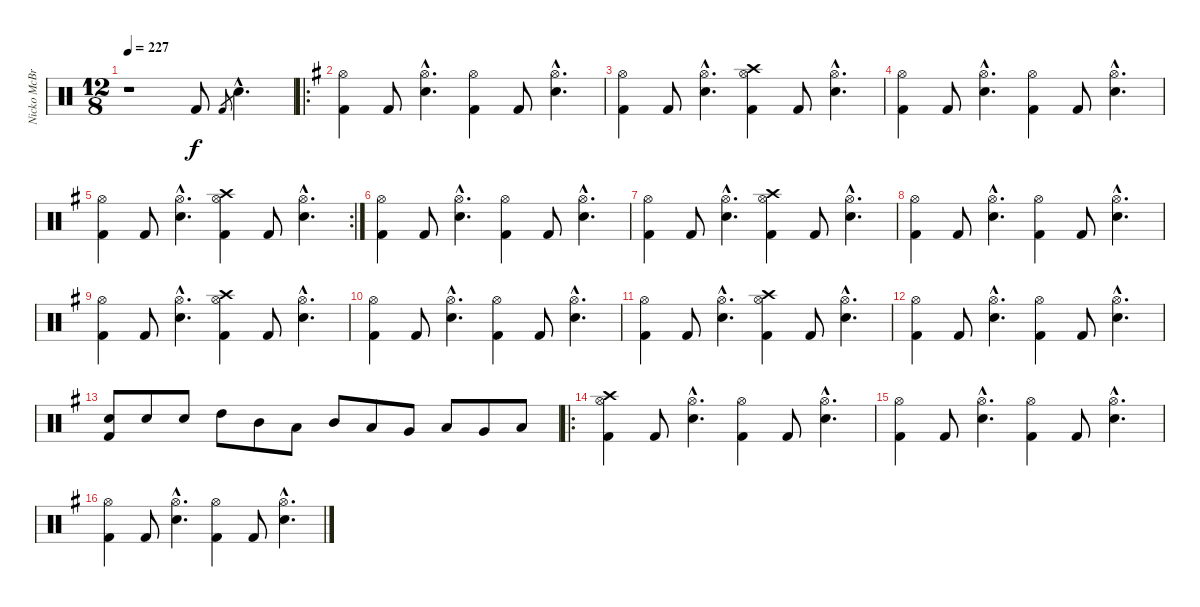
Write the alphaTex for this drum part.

\track ("Nicko McBrain" "Nicko McBr") {instrument percussion}
\staff {score}
\articulation defaults
\ts (12 8)
\tempo 227
\clef neutral
\ks c
r.1{dy f} "Kick (hit) 2".8 "Kick (hit) 2"{sl}.8{gr} "Snare (hit) 2"{hac}.4{d} |
\ro
\ks g
("Kick (hit) 2" "Hi-Hat (open)").4 "Kick (hit) 2".8 ("Snare (hit) 2"{hac} "Hi-Hat (open)"{hac}).4{d} ("Kick (hit) 2" "Hi-Hat (open)").4 "Kick (hit) 2".8 ("Snare (hit) 2"{hac} "Hi-Hat (open)"{hac}).4{d} |
("Kick (hit) 2" "Hi-Hat (open)").4 "Kick (hit) 2".8 ("Snare (hit) 2"{hac} "Hi-Hat (open)"{hac}).4{d} ("Kick (hit) 2" "Hi-Hat (open)" "Crash high (hit)").4 "Kick (hit) 2".8 ("Snare (hit) 2"{hac} "Hi-Hat (open)"{hac}).4{d} |
("Kick (hit) 2" "Hi-Hat (open)").4 "Kick (hit) 2".8 ("Snare (hit) 2"{hac} "Hi-Hat (open)"{hac}).4{d} ("Kick (hit) 2" "Hi-Hat (open)").4 "Kick (hit) 2".8 ("Snare (hit) 2"{hac} "Hi-Hat (open)"{hac}).4{d} |
\rc 2
("Kick (hit) 2" "Hi-Hat (open)").4 "Kick (hit) 2".8 ("Snare (hit) 2"{hac} "Hi-Hat (open)"{hac}).4{d} ("Kick (hit) 2" "Hi-Hat (open)" "Crash high (hit)").4 "Kick (hit) 2".8 ("Snare (hit) 2"{hac} "Hi-Hat (open)"{hac}).4{d} |
("Kick (hit) 2" "Hi-Hat (open)").4 "Kick (hit) 2".8 ("Snare (hit) 2"{hac} "Hi-Hat (open)"{hac}).4{d} ("Kick (hit) 2" "Hi-Hat (open)").4 "Kick (hit) 2".8 ("Snare (hit) 2"{hac} "Hi-Hat (open)"{hac}).4{d} |
("Kick (hit) 2" "Hi-Hat (open)").4 "Kick (hit) 2".8 ("Snare (hit) 2"{hac} "Hi-Hat (open)"{hac}).4{d} ("Kick (hit) 2" "Hi-Hat (open)" "Crash high (hit)").4 "Kick (hit) 2".8 ("Snare (hit) 2"{hac} "Hi-Hat (open)"{hac}).4{d} |
("Kick (hit) 2" "Hi-Hat (open)").4 "Kick (hit) 2".8 ("Snare (hit) 2"{hac} "Hi-Hat (open)"{hac}).4{d} ("Kick (hit) 2" "Hi-Hat (open)").4 "Kick (hit) 2".8 ("Snare (hit) 2"{hac} "Hi-Hat (open)"{hac}).4{d} |
("Kick (hit) 2" "Hi-Hat (open)").4 "Kick (hit) 2".8 ("Snare (hit) 2"{hac} "Hi-Hat (open)"{hac}).4{d} ("Kick (hit) 2" "Hi-Hat (open)" "Crash high (hit)").4 "Kick (hit) 2".8 ("Snare (hit) 2"{hac} "Hi-Hat (open)"{hac}).4{d} |
("Kick (hit) 2" "Hi-Hat (open)").4 "Kick (hit) 2".8 ("Snare (hit) 2"{hac} "Hi-Hat (open)"{hac}).4{d} ("Kick (hit) 2" "Hi-Hat (open)").4 "Kick (hit) 2".8 ("Snare (hit) 2"{hac} "Hi-Hat (open)"{hac}).4{d} |
("Kick (hit) 2" "Hi-Hat (open)").4 "Kick (hit) 2".8 ("Snare (hit) 2"{hac} "Hi-Hat (open)"{hac}).4{d} ("Kick (hit) 2" "Hi-Hat (open)" "Crash high (hit)").4 "Kick (hit) 2".8 ("Snare (hit) 2"{hac} "Hi-Hat (open)"{hac}).4{d} |
("Kick (hit) 2" "Hi-Hat (open)").4 "Kick (hit) 2".8 ("Snare (hit) 2"{hac} "Hi-Hat (open)"{hac}).4{d} ("Kick (hit) 2" "Hi-Hat (open)").4 "Kick (hit) 2".8 ("Snare (hit) 2"{hac} "Hi-Hat (open)"{hac}).4{d} |
("Kick (hit) 2" "Snare (hit) 2").8 "Snare (hit) 2".8 "Snare (hit) 2".8 "High Tom (hit)".8 "Mid Tom (hit)".8 "Low Tom (hit)".8 "Mid Tom (hit)".8 "Low Tom (hit)".8 "Very Low Tom (hit)".8 "Low Tom (hit)".8 "Very Low Tom (hit)".8 "Low Floor Tom (hit)".8 |
\ro
("Kick (hit) 2" "Hi-Hat (open)" "Crash high (hit)").4 "Kick (hit) 2".8 ("Snare (hit) 2"{hac} "Hi-Hat (open)"{hac}).4{d} ("Kick (hit) 2" "Hi-Hat (open)").4 "Kick (hit) 2".8 ("Snare (hit) 2"{hac} "Hi-Hat (open)"{hac}).4{d} |
("Kick (hit) 2" "Hi-Hat (open)").4 "Kick (hit) 2".8 ("Snare (hit) 2"{hac} "Hi-Hat (open)"{hac}).4{d} ("Kick (hit) 2" "Hi-Hat (open)").4 "Kick (hit) 2".8 ("Snare (hit) 2"{hac} "Hi-Hat (open)"{hac}).4{d} |
("Kick (hit) 2" "Hi-Hat (open)").4 "Kick (hit) 2".8 ("Snare (hit) 2"{hac} "Hi-Hat (open)"{hac}).4{d} ("Kick (hit) 2" "Hi-Hat (open)").4 "Kick (hit) 2".8 ("Snare (hit) 2"{hac} "Hi-Hat (open)"{hac}).4{d}
